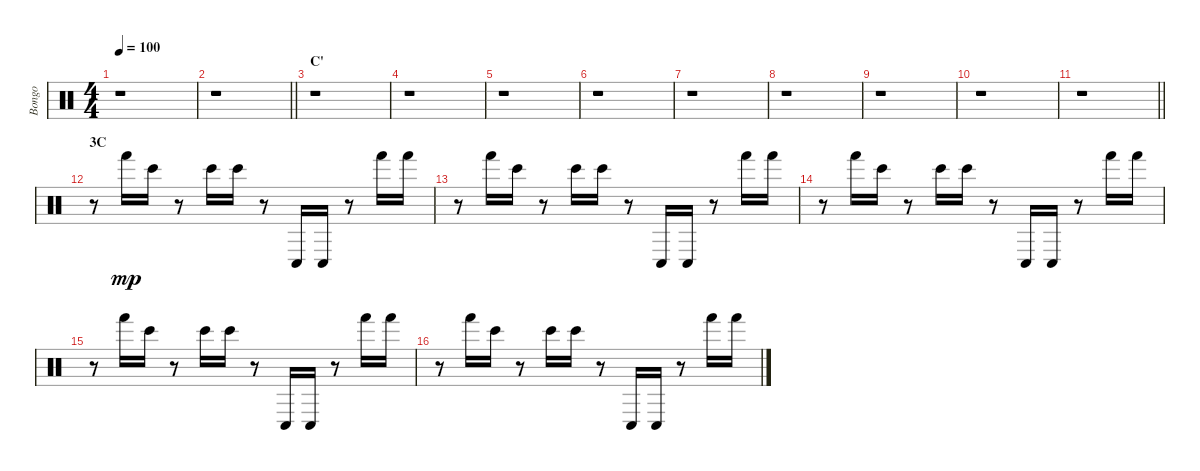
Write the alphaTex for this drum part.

\track ("Bongo" "Bongo") {instrument percussion}
\staff {score}
\articulation defaults
\ts (4 4)
\tempo 100
\clef neutral
\ks c
r.1{dy mp} |
\barLineRight lightlight
r.1 |
\section ("" "C'")
r.1 |
r.1 |
r.1 |
r.1 |
r.1 |
r.1 |
r.1 |
r.1 |
\barLineRight lightlight
r.1 |
\section ("" "3C")
r.8 "Hand (hit)".16 "Bongo High (hit)".16 r.8 "Bongo High (hit)".16 "Bongo High (hit)".16 r.8 "Conga low (hit)".16 "Conga low (hit)".16 r.8 "Hand (hit)".16 "Hand (hit)".16 |
r.8 "Hand (hit)".16 "Bongo High (hit)".16 r.8 "Bongo High (hit)".16 "Bongo High (hit)".16 r.8 "Conga low (hit)".16 "Conga low (hit)".16 r.8 "Hand (hit)".16 "Hand (hit)".16 |
r.8 "Hand (hit)".16 "Bongo High (hit)".16 r.8 "Bongo High (hit)".16 "Bongo High (hit)".16 r.8 "Conga low (hit)".16 "Conga low (hit)".16 r.8 "Hand (hit)".16 "Hand (hit)".16 |
r.8 "Hand (hit)".16 "Bongo High (hit)".16 r.8 "Bongo High (hit)".16 "Bongo High (hit)".16 r.8 "Conga low (hit)".16 "Conga low (hit)".16 r.8 "Hand (hit)".16 "Hand (hit)".16 |
r.8 "Hand (hit)".16 "Bongo High (hit)".16 r.8 "Bongo High (hit)".16 "Bongo High (hit)".16 r.8 "Conga low (hit)".16 "Conga low (hit)".16 r.8 "Hand (hit)".16 "Hand (hit)".16
